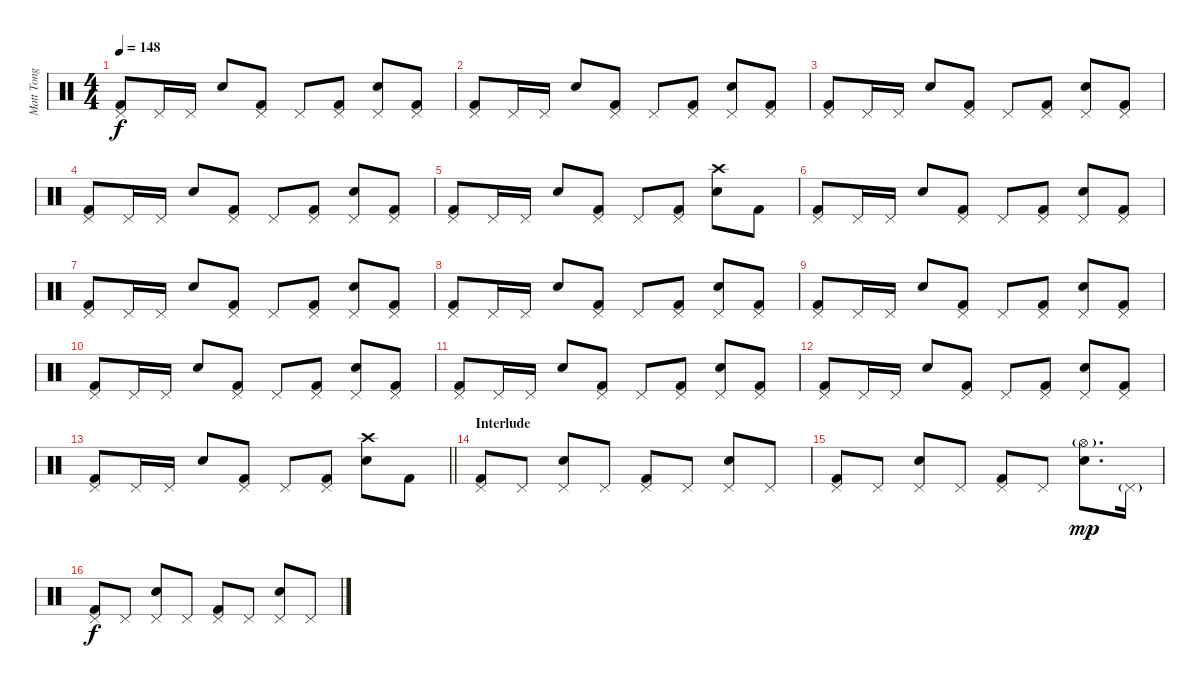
\track ("Matt Tong" "Matt Tong") {instrument percussion}
\staff {score}
\articulation defaults
\ts (4 4)
\tempo 148
\clef neutral
\ks c
("Pedal Hi-Hat (hit)" "Kick (hit) 2").8{dy f} "Pedal Hi-Hat (hit)".16 "Pedal Hi-Hat (hit)".16 "Electric Snare (hit)".8 ("Pedal Hi-Hat (hit)" "Kick (hit) 2").8 "Pedal Hi-Hat (hit)".8 ("Pedal Hi-Hat (hit)" "Kick (hit) 2").8 ("Pedal Hi-Hat (hit)" "Electric Snare (hit)").8 ("Pedal Hi-Hat (hit)" "Kick (hit) 2").8 |
("Pedal Hi-Hat (hit)" "Kick (hit) 2").8 "Pedal Hi-Hat (hit)".16 "Pedal Hi-Hat (hit)".16 "Electric Snare (hit)".8 ("Pedal Hi-Hat (hit)" "Kick (hit) 2").8 "Pedal Hi-Hat (hit)".8 ("Pedal Hi-Hat (hit)" "Kick (hit) 2").8 ("Pedal Hi-Hat (hit)" "Electric Snare (hit)").8 ("Pedal Hi-Hat (hit)" "Kick (hit) 2").8 |
("Pedal Hi-Hat (hit)" "Kick (hit) 2").8 "Pedal Hi-Hat (hit)".16 "Pedal Hi-Hat (hit)".16 "Electric Snare (hit)".8 ("Pedal Hi-Hat (hit)" "Kick (hit) 2").8 "Pedal Hi-Hat (hit)".8 ("Pedal Hi-Hat (hit)" "Kick (hit) 2").8 ("Pedal Hi-Hat (hit)" "Electric Snare (hit)").8 ("Pedal Hi-Hat (hit)" "Kick (hit) 2").8 |
("Pedal Hi-Hat (hit)" "Kick (hit) 2").8 "Pedal Hi-Hat (hit)".16 "Pedal Hi-Hat (hit)".16 "Electric Snare (hit)".8 ("Pedal Hi-Hat (hit)" "Kick (hit) 2").8 "Pedal Hi-Hat (hit)".8 ("Pedal Hi-Hat (hit)" "Kick (hit) 2").8 ("Pedal Hi-Hat (hit)" "Electric Snare (hit)").8 ("Pedal Hi-Hat (hit)" "Kick (hit) 2").8 |
("Pedal Hi-Hat (hit)" "Kick (hit) 2").8 "Pedal Hi-Hat (hit)".16 "Pedal Hi-Hat (hit)".16 "Electric Snare (hit)".8 ("Pedal Hi-Hat (hit)" "Kick (hit) 2").8 "Pedal Hi-Hat (hit)".8 ("Pedal Hi-Hat (hit)" "Kick (hit) 2").8 ("Crash high (hit)" "Electric Snare (hit)").8 "Kick (hit) 2".8 |
("Pedal Hi-Hat (hit)" "Kick (hit) 2").8 "Pedal Hi-Hat (hit)".16 "Pedal Hi-Hat (hit)".16 "Electric Snare (hit)".8 ("Pedal Hi-Hat (hit)" "Kick (hit) 2").8 "Pedal Hi-Hat (hit)".8 ("Pedal Hi-Hat (hit)" "Kick (hit) 2").8 ("Pedal Hi-Hat (hit)" "Electric Snare (hit)").8 ("Pedal Hi-Hat (hit)" "Kick (hit) 2").8 |
("Pedal Hi-Hat (hit)" "Kick (hit) 2").8 "Pedal Hi-Hat (hit)".16 "Pedal Hi-Hat (hit)".16 "Electric Snare (hit)".8 ("Pedal Hi-Hat (hit)" "Kick (hit) 2").8 "Pedal Hi-Hat (hit)".8 ("Pedal Hi-Hat (hit)" "Kick (hit) 2").8 ("Pedal Hi-Hat (hit)" "Electric Snare (hit)").8 ("Pedal Hi-Hat (hit)" "Kick (hit) 2").8 |
("Pedal Hi-Hat (hit)" "Kick (hit) 2").8 "Pedal Hi-Hat (hit)".16 "Pedal Hi-Hat (hit)".16 "Electric Snare (hit)".8 ("Pedal Hi-Hat (hit)" "Kick (hit) 2").8 "Pedal Hi-Hat (hit)".8 ("Pedal Hi-Hat (hit)" "Kick (hit) 2").8 ("Pedal Hi-Hat (hit)" "Electric Snare (hit)").8 ("Pedal Hi-Hat (hit)" "Kick (hit) 2").8 |
("Pedal Hi-Hat (hit)" "Kick (hit) 2").8 "Pedal Hi-Hat (hit)".16 "Pedal Hi-Hat (hit)".16 "Electric Snare (hit)".8 ("Pedal Hi-Hat (hit)" "Kick (hit) 2").8 "Pedal Hi-Hat (hit)".8 ("Pedal Hi-Hat (hit)" "Kick (hit) 2").8 ("Pedal Hi-Hat (hit)" "Electric Snare (hit)").8 ("Pedal Hi-Hat (hit)" "Kick (hit) 2").8 |
("Pedal Hi-Hat (hit)" "Kick (hit) 2").8 "Pedal Hi-Hat (hit)".16 "Pedal Hi-Hat (hit)".16 "Electric Snare (hit)".8 ("Pedal Hi-Hat (hit)" "Kick (hit) 2").8 "Pedal Hi-Hat (hit)".8 ("Pedal Hi-Hat (hit)" "Kick (hit) 2").8 ("Pedal Hi-Hat (hit)" "Electric Snare (hit)").8 ("Pedal Hi-Hat (hit)" "Kick (hit) 2").8 |
("Pedal Hi-Hat (hit)" "Kick (hit) 2").8 "Pedal Hi-Hat (hit)".16 "Pedal Hi-Hat (hit)".16 "Electric Snare (hit)".8 ("Pedal Hi-Hat (hit)" "Kick (hit) 2").8 "Pedal Hi-Hat (hit)".8 ("Pedal Hi-Hat (hit)" "Kick (hit) 2").8 ("Pedal Hi-Hat (hit)" "Electric Snare (hit)").8 ("Pedal Hi-Hat (hit)" "Kick (hit) 2").8 |
("Pedal Hi-Hat (hit)" "Kick (hit) 2").8 "Pedal Hi-Hat (hit)".16 "Pedal Hi-Hat (hit)".16 "Electric Snare (hit)".8 ("Pedal Hi-Hat (hit)" "Kick (hit) 2").8 "Pedal Hi-Hat (hit)".8 ("Pedal Hi-Hat (hit)" "Kick (hit) 2").8 ("Pedal Hi-Hat (hit)" "Electric Snare (hit)").8 ("Pedal Hi-Hat (hit)" "Kick (hit) 2").8 |
\barLineRight lightlight
("Pedal Hi-Hat (hit)" "Kick (hit) 2").8 "Pedal Hi-Hat (hit)".16 "Pedal Hi-Hat (hit)".16 "Electric Snare (hit)".8 ("Pedal Hi-Hat (hit)" "Kick (hit) 2").8 "Pedal Hi-Hat (hit)".8 ("Pedal Hi-Hat (hit)" "Kick (hit) 2").8 ("Crash high (hit)" "Electric Snare (hit)").8 "Kick (hit) 2".8 |
\section ("" "Interlude")
("Pedal Hi-Hat (hit)" "Kick (hit) 2").8 "Pedal Hi-Hat (hit)".8 ("Pedal Hi-Hat (hit)" "Electric Snare (hit)").8 "Pedal Hi-Hat (hit)".8 ("Pedal Hi-Hat (hit)" "Kick (hit) 2").8 "Pedal Hi-Hat (hit)".8 ("Pedal Hi-Hat (hit)" "Electric Snare (hit)").8 "Pedal Hi-Hat (hit)".8 |
("Pedal Hi-Hat (hit)" "Kick (hit) 2").8 "Pedal Hi-Hat (hit)".8 ("Pedal Hi-Hat (hit)" "Electric Snare (hit)").8 "Pedal Hi-Hat (hit)".8 ("Pedal Hi-Hat (hit)" "Kick (hit) 2").8 "Pedal Hi-Hat (hit)".8 ("Hi-Hat (open)"{g} "Electric Snare (hit)").8{d dy mp} "Pedal Hi-Hat (hit)"{g}.16 |
("Pedal Hi-Hat (hit)" "Kick (hit) 2").8{dy f} "Pedal Hi-Hat (hit)".8 ("Pedal Hi-Hat (hit)" "Electric Snare (hit)").8 "Pedal Hi-Hat (hit)".8 ("Pedal Hi-Hat (hit)" "Kick (hit) 2").8 "Pedal Hi-Hat (hit)".8 ("Pedal Hi-Hat (hit)" "Electric Snare (hit)").8 "Pedal Hi-Hat (hit)".8
